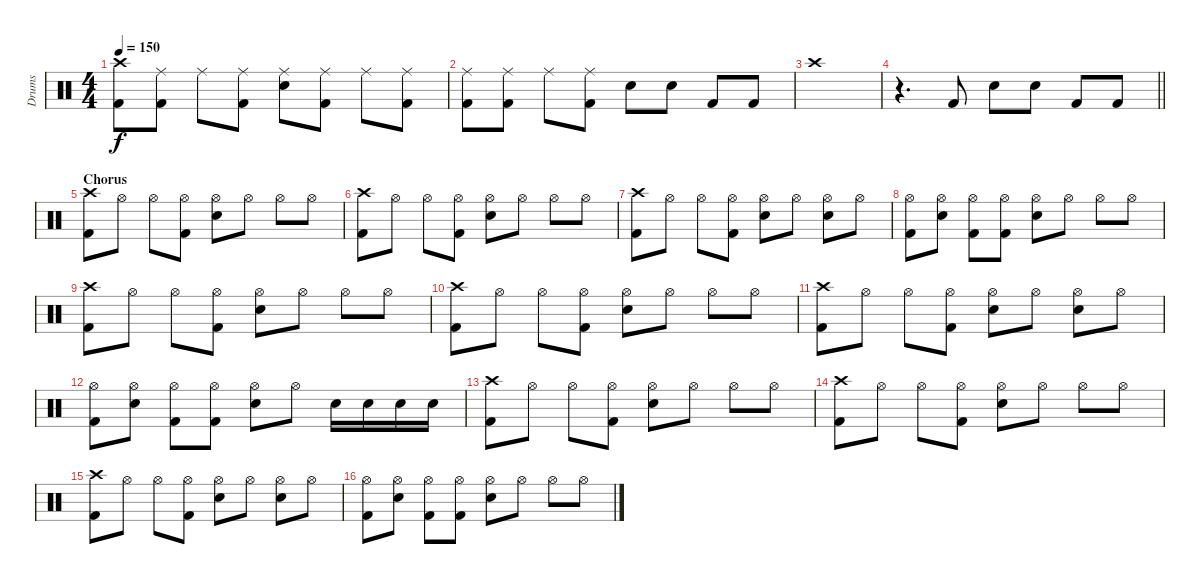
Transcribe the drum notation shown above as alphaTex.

\track ("Drums" "Drums") {instrument percussion}
\staff {score}
\articulation defaults
\ts (4 4)
\tempo 150
\clef neutral
\ks c
("Crash high (hit)" "Kick (hit) 2").8{dy f} ("Ride (middle)" "Kick (hit) 2").8 "Ride (middle)".8 ("Ride (middle)" "Kick (hit) 2").8 ("Ride (middle)" "Electric Snare (hit)").8 ("Ride (middle)" "Kick (hit) 2").8 "Ride (middle)".8 ("Ride (middle)" "Kick (hit) 2").8 |
("Ride (middle)" "Kick (hit) 2").8 ("Ride (middle)" "Kick (hit) 2").8 "Ride (middle)".8 ("Ride (middle)" "Kick (hit) 2").8 "Electric Snare (hit)".8 "Electric Snare (hit)".8 "Kick (hit) 2".8 "Kick (hit) 2".8 |
"Crash high (hit)".1 |
\barLineRight lightlight
r.4{d} "Kick (hit) 2".8 "Electric Snare (hit)".8 "Electric Snare (hit)".8 "Kick (hit) 2".8 "Kick (hit) 2".8 |
\section ("" "Chorus")
("Crash high (hit)" "Kick (hit) 2").8 "Hi-Hat (open)".8 "Hi-Hat (open)".8 ("Hi-Hat (open)" "Kick (hit) 2").8 ("Hi-Hat (open)" "Electric Snare (hit)").8 "Hi-Hat (open)".8 "Hi-Hat (open)".8 "Hi-Hat (open)".8 |
("Crash high (hit)" "Kick (hit) 2").8 "Hi-Hat (open)".8 "Hi-Hat (open)".8 ("Hi-Hat (open)" "Kick (hit) 2").8 ("Hi-Hat (open)" "Electric Snare (hit)").8 "Hi-Hat (open)".8 "Hi-Hat (open)".8 "Hi-Hat (open)".8 |
("Crash high (hit)" "Kick (hit) 2").8 "Hi-Hat (open)".8 "Hi-Hat (open)".8 ("Hi-Hat (open)" "Kick (hit) 2").8 ("Hi-Hat (open)" "Electric Snare (hit)").8 "Hi-Hat (open)".8 ("Hi-Hat (open)" "Electric Snare (hit)").8 "Hi-Hat (open)".8 |
("Hi-Hat (open)" "Kick (hit) 2").8 ("Hi-Hat (open)" "Electric Snare (hit)").8 ("Hi-Hat (open)" "Kick (hit) 2").8 ("Hi-Hat (open)" "Kick (hit) 2").8 ("Hi-Hat (open)" "Electric Snare (hit)").8 "Hi-Hat (open)".8 "Hi-Hat (open)".8 "Hi-Hat (open)".8 |
("Crash high (hit)" "Kick (hit) 2").8 "Hi-Hat (open)".8 "Hi-Hat (open)".8 ("Hi-Hat (open)" "Kick (hit) 2").8 ("Hi-Hat (open)" "Electric Snare (hit)").8 "Hi-Hat (open)".8 "Hi-Hat (open)".8 "Hi-Hat (open)".8 |
("Crash high (hit)" "Kick (hit) 2").8 "Hi-Hat (open)".8 "Hi-Hat (open)".8 ("Hi-Hat (open)" "Kick (hit) 2").8 ("Hi-Hat (open)" "Electric Snare (hit)").8 "Hi-Hat (open)".8 "Hi-Hat (open)".8 "Hi-Hat (open)".8 |
("Crash high (hit)" "Kick (hit) 2").8 "Hi-Hat (open)".8 "Hi-Hat (open)".8 ("Hi-Hat (open)" "Kick (hit) 2").8 ("Hi-Hat (open)" "Electric Snare (hit)").8 "Hi-Hat (open)".8 ("Hi-Hat (open)" "Electric Snare (hit)").8 "Hi-Hat (open)".8 |
("Hi-Hat (open)" "Kick (hit) 2").8 ("Hi-Hat (open)" "Electric Snare (hit)").8 ("Hi-Hat (open)" "Kick (hit) 2").8 ("Hi-Hat (open)" "Kick (hit) 2").8 ("Hi-Hat (open)" "Electric Snare (hit)").8 "Hi-Hat (open)".8 "Electric Snare (hit)".16 "Electric Snare (hit)".16 "Electric Snare (hit)".16 "Electric Snare (hit)".16 |
("Crash high (hit)" "Kick (hit) 2").8 "Hi-Hat (open)".8 "Hi-Hat (open)".8 ("Hi-Hat (open)" "Kick (hit) 2").8 ("Hi-Hat (open)" "Electric Snare (hit)").8 "Hi-Hat (open)".8 "Hi-Hat (open)".8 "Hi-Hat (open)".8 |
("Crash high (hit)" "Kick (hit) 2").8 "Hi-Hat (open)".8 "Hi-Hat (open)".8 ("Hi-Hat (open)" "Kick (hit) 2").8 ("Hi-Hat (open)" "Electric Snare (hit)").8 "Hi-Hat (open)".8 "Hi-Hat (open)".8 "Hi-Hat (open)".8 |
("Crash high (hit)" "Kick (hit) 2").8 "Hi-Hat (open)".8 "Hi-Hat (open)".8 ("Hi-Hat (open)" "Kick (hit) 2").8 ("Hi-Hat (open)" "Electric Snare (hit)").8 "Hi-Hat (open)".8 ("Hi-Hat (open)" "Electric Snare (hit)").8 "Hi-Hat (open)".8 |
("Hi-Hat (open)" "Kick (hit) 2").8 ("Hi-Hat (open)" "Electric Snare (hit)").8 ("Hi-Hat (open)" "Kick (hit) 2").8 ("Hi-Hat (open)" "Kick (hit) 2").8 ("Hi-Hat (open)" "Electric Snare (hit)").8 "Hi-Hat (open)".8 "Hi-Hat (open)".8 "Hi-Hat (open)".8
